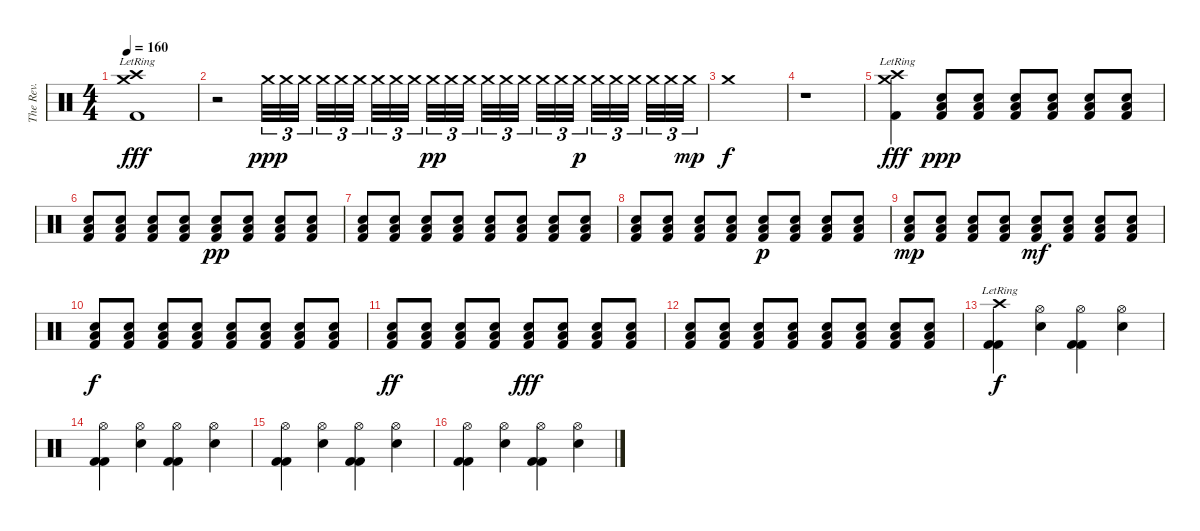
\track ("The Rev." "The Rev.") {instrument percussion}
\staff {score}
\articulation defaults
\ts (4 4)
\tempo 160
\clef neutral
\ks c
("Kick (hit) 2" "Crash high (hit)"{lr} "Crash medium (hit)"{lr}).1{dy fff} |
r.2 "Crash medium (hit)".32{tu (3 2) dy ppp} "Crash medium (hit)".32{tu (3 2)} "Crash medium (hit)".32{tu (3 2)} "Crash medium (hit)".32{tu (3 2)} "Crash medium (hit)".32{tu (3 2)} "Crash medium (hit)".32{tu (3 2)} "Crash medium (hit)".32{tu (3 2)} "Crash medium (hit)".32{tu (3 2)} "Crash medium (hit)".32{tu (3 2)} "Crash medium (hit)".32{tu (3 2) dy pp} "Crash medium (hit)".32{tu (3 2)} "Crash medium (hit)".32{tu (3 2)} "Crash medium (hit)".32{tu (3 2)} "Crash medium (hit)".32{tu (3 2)} "Crash medium (hit)".32{tu (3 2)} "Crash medium (hit)".32{tu (3 2)} "Crash medium (hit)".32{tu (3 2)} "Crash medium (hit)".32{tu (3 2) dy p} "Crash medium (hit)".32{tu (3 2)} "Crash medium (hit)".32{tu (3 2)} "Crash medium (hit)".32{tu (3 2)} "Crash medium (hit)".32{tu (3 2)} "Crash medium (hit)".32{tu (3 2)} "Crash medium (hit)".32{tu (3 2) dy mp} |
"Crash medium (hit)".1{dy f} |
r.1 |
("Kick (hit) 2" "Crash high (hit)"{lr} "Crash medium (hit)"{lr}).4{dy fff} ("Low Tom (hit)" "Electric Snare (hit)" "Kick (hit) 2").8{dy ppp} ("Low Tom (hit)" "Electric Snare (hit)" "Kick (hit) 2").8 ("Low Tom (hit)" "Electric Snare (hit)" "Kick (hit) 2").8 ("Low Tom (hit)" "Electric Snare (hit)" "Kick (hit) 2").8 ("Low Tom (hit)" "Electric Snare (hit)" "Kick (hit) 2").8 ("Low Tom (hit)" "Electric Snare (hit)" "Kick (hit) 2").8 |
("Low Tom (hit)" "Electric Snare (hit)" "Kick (hit) 2").8 ("Low Tom (hit)" "Electric Snare (hit)" "Kick (hit) 2").8 ("Low Tom (hit)" "Electric Snare (hit)" "Kick (hit) 2").8 ("Low Tom (hit)" "Electric Snare (hit)" "Kick (hit) 2").8 ("Low Tom (hit)" "Electric Snare (hit)" "Kick (hit) 2").8{dy pp} ("Low Tom (hit)" "Electric Snare (hit)" "Kick (hit) 2").8 ("Low Tom (hit)" "Electric Snare (hit)" "Kick (hit) 2").8 ("Low Tom (hit)" "Electric Snare (hit)" "Kick (hit) 2").8 |
("Low Tom (hit)" "Electric Snare (hit)" "Kick (hit) 2").8 ("Low Tom (hit)" "Electric Snare (hit)" "Kick (hit) 2").8 ("Low Tom (hit)" "Electric Snare (hit)" "Kick (hit) 2").8 ("Low Tom (hit)" "Electric Snare (hit)" "Kick (hit) 2").8 ("Low Tom (hit)" "Electric Snare (hit)" "Kick (hit) 2").8 ("Low Tom (hit)" "Electric Snare (hit)" "Kick (hit) 2").8 ("Low Tom (hit)" "Electric Snare (hit)" "Kick (hit) 2").8 ("Low Tom (hit)" "Electric Snare (hit)" "Kick (hit) 2").8 |
("Low Tom (hit)" "Electric Snare (hit)" "Kick (hit) 2").8 ("Low Tom (hit)" "Electric Snare (hit)" "Kick (hit) 2").8 ("Low Tom (hit)" "Electric Snare (hit)" "Kick (hit) 2").8 ("Low Tom (hit)" "Electric Snare (hit)" "Kick (hit) 2").8 ("Low Tom (hit)" "Electric Snare (hit)" "Kick (hit) 2").8{dy p} ("Low Tom (hit)" "Electric Snare (hit)" "Kick (hit) 2").8 ("Low Tom (hit)" "Electric Snare (hit)" "Kick (hit) 2").8 ("Low Tom (hit)" "Electric Snare (hit)" "Kick (hit) 2").8 |
("Low Tom (hit)" "Electric Snare (hit)" "Kick (hit) 2").8{dy mp} ("Low Tom (hit)" "Electric Snare (hit)" "Kick (hit) 2").8 ("Low Tom (hit)" "Electric Snare (hit)" "Kick (hit) 2").8 ("Low Tom (hit)" "Electric Snare (hit)" "Kick (hit) 2").8 ("Low Tom (hit)" "Electric Snare (hit)" "Kick (hit) 2").8{dy mf} ("Low Tom (hit)" "Electric Snare (hit)" "Kick (hit) 2").8 ("Low Tom (hit)" "Electric Snare (hit)" "Kick (hit) 2").8 ("Low Tom (hit)" "Electric Snare (hit)" "Kick (hit) 2").8 |
("Low Tom (hit)" "Electric Snare (hit)" "Kick (hit) 2").8{dy f} ("Low Tom (hit)" "Electric Snare (hit)" "Kick (hit) 2").8 ("Low Tom (hit)" "Electric Snare (hit)" "Kick (hit) 2").8 ("Low Tom (hit)" "Electric Snare (hit)" "Kick (hit) 2").8 ("Low Tom (hit)" "Electric Snare (hit)" "Kick (hit) 2").8 ("Low Tom (hit)" "Electric Snare (hit)" "Kick (hit) 2").8 ("Low Tom (hit)" "Electric Snare (hit)" "Kick (hit) 2").8 ("Low Tom (hit)" "Electric Snare (hit)" "Kick (hit) 2").8 |
("Low Tom (hit)" "Electric Snare (hit)" "Kick (hit) 2").8{dy ff} ("Low Tom (hit)" "Electric Snare (hit)" "Kick (hit) 2").8 ("Low Tom (hit)" "Electric Snare (hit)" "Kick (hit) 2").8 ("Low Tom (hit)" "Electric Snare (hit)" "Kick (hit) 2").8 ("Low Tom (hit)" "Electric Snare (hit)" "Kick (hit) 2").8{dy fff} ("Low Tom (hit)" "Electric Snare (hit)" "Kick (hit) 2").8 ("Low Tom (hit)" "Electric Snare (hit)" "Kick (hit) 2").8 ("Low Tom (hit)" "Electric Snare (hit)" "Kick (hit) 2").8 |
("Low Tom (hit)" "Electric Snare (hit)" "Kick (hit) 2").8 ("Low Tom (hit)" "Electric Snare (hit)" "Kick (hit) 2").8 ("Low Tom (hit)" "Electric Snare (hit)" "Kick (hit) 2").8 ("Low Tom (hit)" "Electric Snare (hit)" "Kick (hit) 2").8 ("Low Tom (hit)" "Electric Snare (hit)" "Kick (hit) 2").8 ("Low Tom (hit)" "Electric Snare (hit)" "Kick (hit) 2").8 ("Low Tom (hit)" "Electric Snare (hit)" "Kick (hit) 2").8 ("Low Tom (hit)" "Electric Snare (hit)" "Kick (hit) 2").8 |
("Crash high (hit)" "Kick (hit) 2" "Kick (hit) 2"{lr}).4{dy f} ("Hi-Hat (open)" "Electric Snare (hit)").4 ("Hi-Hat (open)" "Kick (hit) 2" "Kick (hit) 2").4 ("Hi-Hat (open)" "Electric Snare (hit)").4 |
("Hi-Hat (open)" "Kick (hit) 2" "Kick (hit) 2").4 ("Hi-Hat (open)" "Electric Snare (hit)").4 ("Hi-Hat (open)" "Kick (hit) 2" "Kick (hit) 2").4 ("Hi-Hat (open)" "Electric Snare (hit)").4 |
("Hi-Hat (open)" "Kick (hit) 2" "Kick (hit) 2").4 ("Hi-Hat (open)" "Electric Snare (hit)").4 ("Hi-Hat (open)" "Kick (hit) 2" "Kick (hit) 2").4 ("Hi-Hat (open)" "Electric Snare (hit)").4 |
("Hi-Hat (open)" "Kick (hit) 2" "Kick (hit) 2").4 ("Hi-Hat (open)" "Electric Snare (hit)").4 ("Hi-Hat (open)" "Kick (hit) 2" "Kick (hit) 2").4 ("Hi-Hat (open)" "Electric Snare (hit)").4
